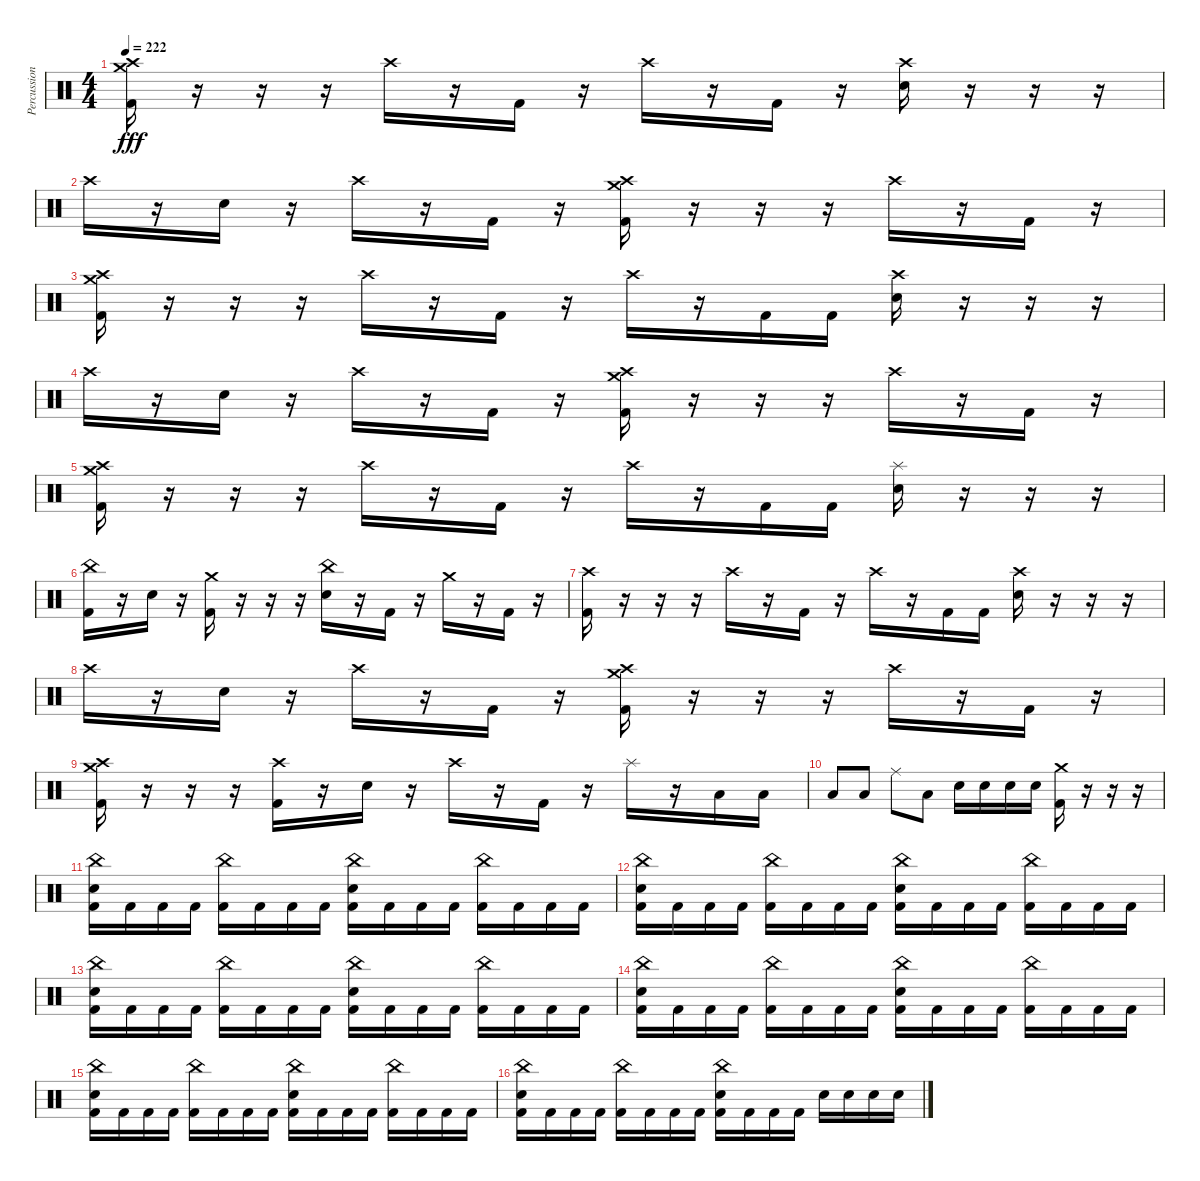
\track ("Percussion" "Percussion") {instrument percussion}
\staff {score}
\articulation defaults
\ts (4 4)
\tempo 222
\clef neutral
\ks c
("Kick (hit) 2" "Crash medium (hit)" "Crash high (hit)").16{dy fff} r.16 r.16 r.16 "Crash high (hit)".16 r.16 "Kick (hit) 2".16 r.16 "Crash high (hit)".16 r.16 "Kick (hit) 2".16 r.16 ("Electric Snare (hit)" "Crash high (hit)").16 r.16 r.16 r.16 |
"Crash high (hit)".16 r.16 "Electric Snare (hit)".16 r.16 "Crash high (hit)".16 r.16 "Kick (hit) 2".16 r.16 ("Kick (hit) 2" "Crash high (hit)" "Crash medium (hit)").16 r.16 r.16 r.16 "Crash high (hit)".16 r.16 "Kick (hit) 2".16 r.16 |
("Kick (hit) 2" "Crash medium (hit)" "Crash high (hit)").16 r.16 r.16 r.16 "Crash high (hit)".16 r.16 "Kick (hit) 2".16 r.16 "Crash high (hit)".16 r.16 "Kick (hit) 2".16 "Kick (hit) 2".16 ("Electric Snare (hit)" "Crash high (hit)").16 r.16 r.16 r.16 |
"Crash high (hit)".16 r.16 "Electric Snare (hit)".16 r.16 "Crash high (hit)".16 r.16 "Kick (hit) 2".16 r.16 ("Kick (hit) 2" "Crash high (hit)" "Crash medium (hit)").16 r.16 r.16 r.16 "Crash high (hit)".16 r.16 "Kick (hit) 2".16 r.16 |
("Kick (hit) 2" "Crash medium (hit)" "Crash high (hit)").16 r.16 r.16 r.16 "Crash high (hit)".16 r.16 "Kick (hit) 2".16 r.16 "Crash high (hit)".16 r.16 "Kick (hit) 2".16 "Kick (hit) 2".16 ("Electric Snare (hit)" "Splash (hit)").16 r.16 r.16 r.16 |
("Kick (hit) 2" "China (hit)").16 r.16 "Electric Snare (hit)".16 r.16 ("Kick (hit) 2" "Crash medium (hit)").16 r.16 r.16 r.16 ("Electric Snare (hit)" "China (hit)").16 r.16 "Kick (hit) 2".16 r.16 "Crash medium (hit)".16 r.16 "Kick (hit) 2".16 r.16 |
("Kick (hit) 2" "Crash high (hit)").16 r.16 r.16 r.16 "Crash high (hit)".16 r.16 "Kick (hit) 2".16 r.16 "Crash high (hit)".16 r.16 "Kick (hit) 2".16 "Kick (hit) 2".16 ("Electric Snare (hit)" "Crash high (hit)").16 r.16 r.16 r.16 |
"Crash high (hit)".16 r.16 "Electric Snare (hit)".16 r.16 "Crash high (hit)".16 r.16 "Kick (hit) 2".16 r.16 ("Kick (hit) 2" "Crash high (hit)" "Crash medium (hit)").16 r.16 r.16 r.16 "Crash high (hit)".16 r.16 "Kick (hit) 2".16 r.16 |
("Kick (hit) 2" "Crash medium (hit)" "Crash high (hit)").16 r.16 r.16 r.16 ("Kick (hit) 2" "Crash high (hit)").16 r.16 "Electric Snare (hit)".16 r.16 "Crash high (hit)".16 r.16 "Kick (hit) 2".16 r.16 "Splash (hit)".16 r.16 "Low Tom (hit)".16 "Low Tom (hit)".16 |
"Low Tom (hit)".8 "Low Tom (hit)".8 "Ride (middle)".8 "Low Tom (hit)".8 "Electric Snare (hit)".16 "Electric Snare (hit)".16 "Electric Snare (hit)".16 "Electric Snare (hit)".16 ("Kick (hit) 2" "Crash medium (hit)").16 r.16 r.16 r.16 |
("Kick (hit) 2" "Electric Snare (hit)" "China (hit)").16 "Kick (hit) 2".16 "Kick (hit) 2".16 "Kick (hit) 2".16 ("Kick (hit) 2" "China (hit)").16 "Kick (hit) 2".16 "Kick (hit) 2".16 "Kick (hit) 2".16 ("Kick (hit) 2" "Electric Snare (hit)" "China (hit)").16 "Kick (hit) 2".16 "Kick (hit) 2".16 "Kick (hit) 2".16 ("Kick (hit) 2" "China (hit)").16 "Kick (hit) 2".16 "Kick (hit) 2".16 "Kick (hit) 2".16 |
("Kick (hit) 2" "Electric Snare (hit)" "China (hit)").16 "Kick (hit) 2".16 "Kick (hit) 2".16 "Kick (hit) 2".16 ("Kick (hit) 2" "China (hit)").16 "Kick (hit) 2".16 "Kick (hit) 2".16 "Kick (hit) 2".16 ("Kick (hit) 2" "Electric Snare (hit)" "China (hit)").16 "Kick (hit) 2".16 "Kick (hit) 2".16 "Kick (hit) 2".16 ("Kick (hit) 2" "China (hit)").16 "Kick (hit) 2".16 "Kick (hit) 2".16 "Kick (hit) 2".16 |
("Kick (hit) 2" "Electric Snare (hit)" "China (hit)").16 "Kick (hit) 2".16 "Kick (hit) 2".16 "Kick (hit) 2".16 ("Kick (hit) 2" "China (hit)").16 "Kick (hit) 2".16 "Kick (hit) 2".16 "Kick (hit) 2".16 ("Kick (hit) 2" "Electric Snare (hit)" "China (hit)").16 "Kick (hit) 2".16 "Kick (hit) 2".16 "Kick (hit) 2".16 ("Kick (hit) 2" "China (hit)").16 "Kick (hit) 2".16 "Kick (hit) 2".16 "Kick (hit) 2".16 |
("Kick (hit) 2" "Electric Snare (hit)" "China (hit)").16 "Kick (hit) 2".16 "Kick (hit) 2".16 "Kick (hit) 2".16 ("Kick (hit) 2" "China (hit)").16 "Kick (hit) 2".16 "Kick (hit) 2".16 "Kick (hit) 2".16 ("Kick (hit) 2" "Electric Snare (hit)" "China (hit)").16 "Kick (hit) 2".16 "Kick (hit) 2".16 "Kick (hit) 2".16 ("Kick (hit) 2" "China (hit)").16 "Kick (hit) 2".16 "Kick (hit) 2".16 "Kick (hit) 2".16 |
("Kick (hit) 2" "Electric Snare (hit)" "China (hit)").16 "Kick (hit) 2".16 "Kick (hit) 2".16 "Kick (hit) 2".16 ("Kick (hit) 2" "China (hit)").16 "Kick (hit) 2".16 "Kick (hit) 2".16 "Kick (hit) 2".16 ("Kick (hit) 2" "Electric Snare (hit)" "China (hit)").16 "Kick (hit) 2".16 "Kick (hit) 2".16 "Kick (hit) 2".16 ("Kick (hit) 2" "China (hit)").16 "Kick (hit) 2".16 "Kick (hit) 2".16 "Kick (hit) 2".16 |
("Kick (hit) 2" "Electric Snare (hit)" "China (hit)").16 "Kick (hit) 2".16 "Kick (hit) 2".16 "Kick (hit) 2".16 ("Kick (hit) 2" "China (hit)").16 "Kick (hit) 2".16 "Kick (hit) 2".16 "Kick (hit) 2".16 ("Kick (hit) 2" "Electric Snare (hit)" "China (hit)").16 "Kick (hit) 2".16 "Kick (hit) 2".16 "Kick (hit) 2".16 "Electric Snare (hit)".16 "Electric Snare (hit)".16 "Electric Snare (hit)".16 "Electric Snare (hit)".16
